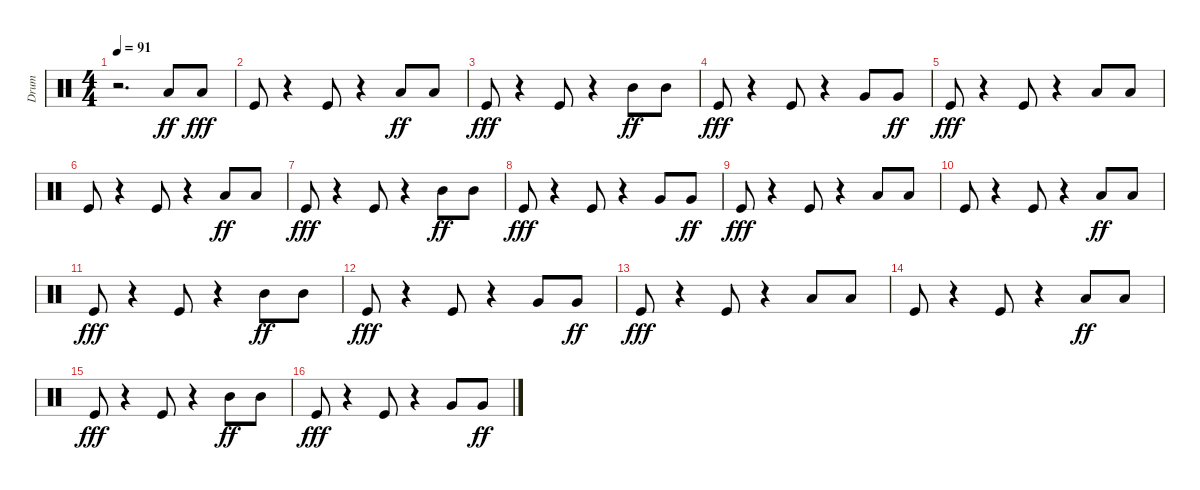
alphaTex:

\track ("Drum" "Drum") {instrument percussion}
\staff {score}
\articulation defaults
\ts (4 4)
\tempo 91
\clef neutral
\ks c
r.2{d dy ff} "Low Floor Tom (hit)".8 "Low Floor Tom (hit)".8{dy fff} |
"Kick (hit)".8 r.4 "Kick (hit)".8 r.4 "Low Tom (hit)".8{dy ff} "Low Tom (hit)".8 |
"Kick (hit)".8{dy fff} r.4 "Kick (hit)".8 r.4 "Mid Tom (hit)".8{dy ff} "Mid Tom (hit)".8 |
"Kick (hit)".8{dy fff} r.4 "Kick (hit)".8 r.4 "Very Low Tom (hit)".8 "Very Low Tom (hit)".8{dy ff} |
"Kick (hit)".8{dy fff} r.4 "Kick (hit)".8 r.4 "Low Floor Tom (hit)".8 "Low Floor Tom (hit)".8 |
"Kick (hit)".8 r.4 "Kick (hit)".8 r.4 "Low Tom (hit)".8{dy ff} "Low Tom (hit)".8 |
"Kick (hit)".8{dy fff} r.4 "Kick (hit)".8 r.4 "Mid Tom (hit)".8{dy ff} "Mid Tom (hit)".8 |
"Kick (hit)".8{dy fff} r.4 "Kick (hit)".8 r.4 "Very Low Tom (hit)".8 "Very Low Tom (hit)".8{dy ff} |
"Kick (hit)".8{dy fff} r.4 "Kick (hit)".8 r.4 "Low Floor Tom (hit)".8 "Low Floor Tom (hit)".8 |
"Kick (hit)".8 r.4 "Kick (hit)".8 r.4 "Low Tom (hit)".8{dy ff} "Low Tom (hit)".8 |
"Kick (hit)".8{dy fff} r.4 "Kick (hit)".8 r.4 "Mid Tom (hit)".8{dy ff} "Mid Tom (hit)".8 |
"Kick (hit)".8{dy fff} r.4 "Kick (hit)".8 r.4 "Very Low Tom (hit)".8 "Very Low Tom (hit)".8{dy ff} |
"Kick (hit)".8{dy fff} r.4 "Kick (hit)".8 r.4 "Low Floor Tom (hit)".8 "Low Floor Tom (hit)".8 |
"Kick (hit)".8 r.4 "Kick (hit)".8 r.4 "Low Tom (hit)".8{dy ff} "Low Tom (hit)".8 |
"Kick (hit)".8{dy fff} r.4 "Kick (hit)".8 r.4 "Mid Tom (hit)".8{dy ff} "Mid Tom (hit)".8 |
"Kick (hit)".8{dy fff} r.4 "Kick (hit)".8 r.4 "Very Low Tom (hit)".8 "Very Low Tom (hit)".8{dy ff}
